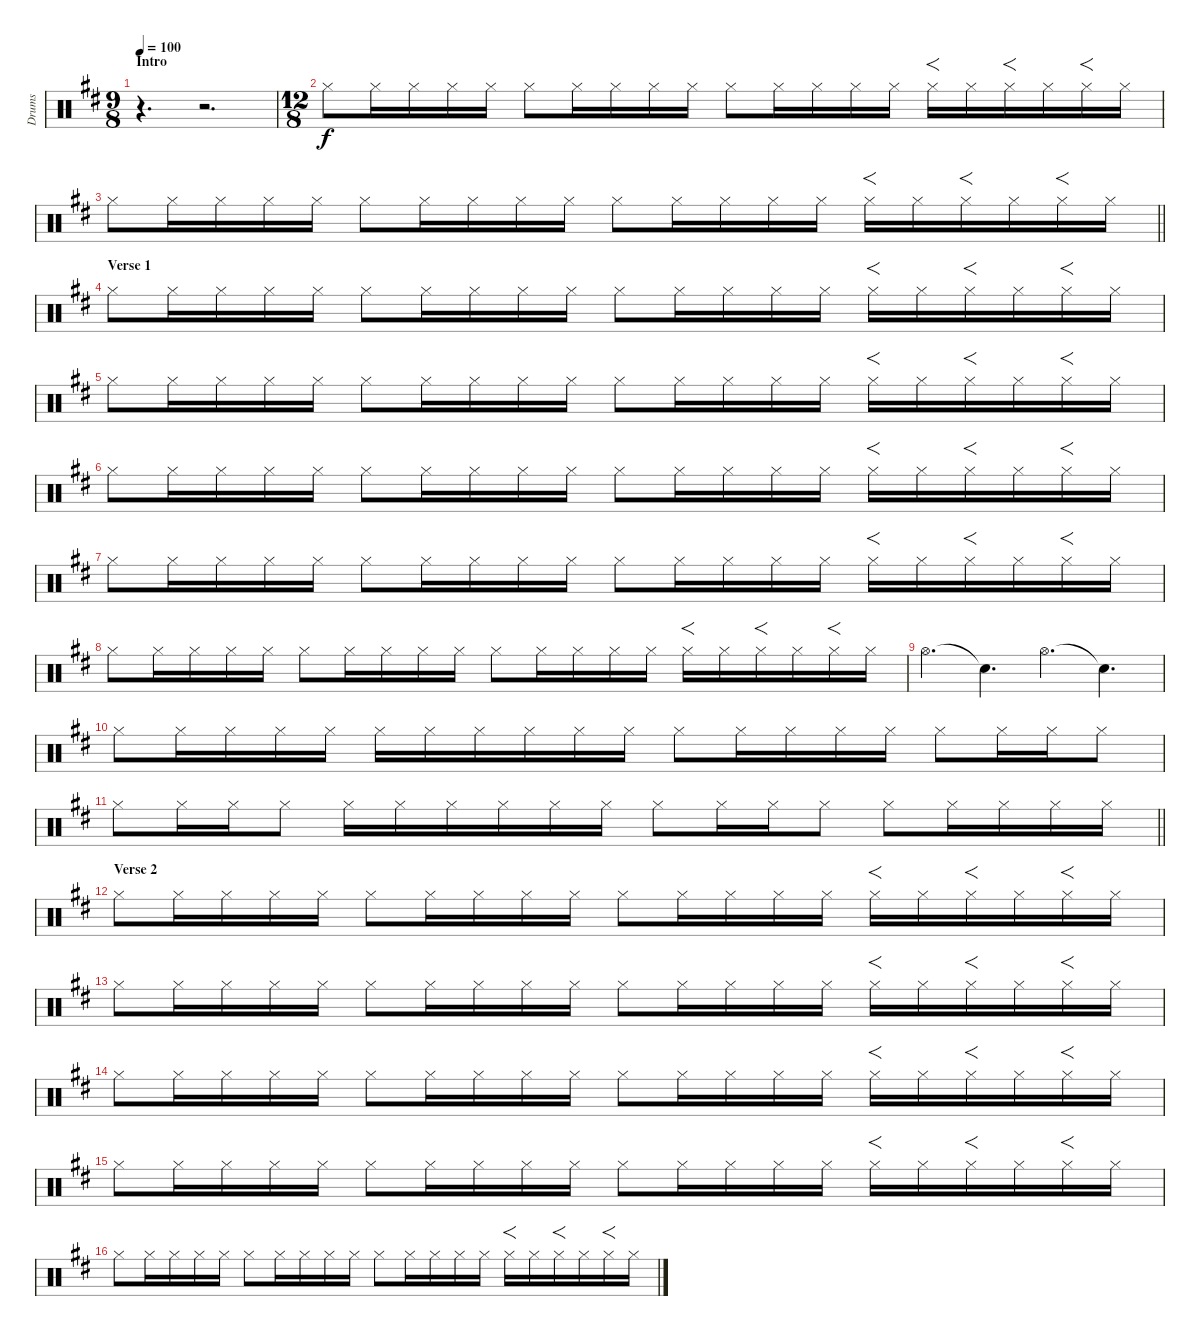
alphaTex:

\track ("Drums" "Drums") {instrument percussion}
\staff {score}
\articulation defaults
\ts (9 8)
\section ("" "Intro")
\tempo 100
\clef neutral
\ks d
r.4{d dy f} r.2{d} |
\ts (12 8)
"Hi-Hat (closed)".8 "Hi-Hat (closed)".16 "Hi-Hat (closed)".16 "Hi-Hat (closed)".16 "Hi-Hat (closed)".16 "Hi-Hat (closed)".8 "Hi-Hat (closed)".16 "Hi-Hat (closed)".16 "Hi-Hat (closed)".16 "Hi-Hat (closed)".16 "Hi-Hat (closed)".8 "Hi-Hat (closed)".16 "Hi-Hat (closed)".16 "Hi-Hat (closed)".16 "Hi-Hat (closed)".16 "Hi-Hat (closed)".16{f} "Hi-Hat (closed)".16 "Hi-Hat (closed)".16{f} "Hi-Hat (closed)".16 "Hi-Hat (closed)".16{f} "Hi-Hat (closed)".16 |
\barLineRight lightlight "Hi-Hat (closed)".8 "Hi-Hat (closed)".16 "Hi-Hat (closed)".16 "Hi-Hat (closed)".16 "Hi-Hat (closed)".16 "Hi-Hat (closed)".8 "Hi-Hat (closed)".16 "Hi-Hat (closed)".16 "Hi-Hat (closed)".16 "Hi-Hat (closed)".16 "Hi-Hat (closed)".8 "Hi-Hat (closed)".16 "Hi-Hat (closed)".16 "Hi-Hat (closed)".16 "Hi-Hat (closed)".16 "Hi-Hat (closed)".16{f} "Hi-Hat (closed)".16 "Hi-Hat (closed)".16{f} "Hi-Hat (closed)".16 "Hi-Hat (closed)".16{f} "Hi-Hat (closed)".16
|
\section ("" "Verse 1")
"Hi-Hat (closed)".8 "Hi-Hat (closed)".16 "Hi-Hat (closed)".16 "Hi-Hat (closed)".16 "Hi-Hat (closed)".16 "Hi-Hat (closed)".8 "Hi-Hat (closed)".16 "Hi-Hat (closed)".16 "Hi-Hat (closed)".16 "Hi-Hat (closed)".16 "Hi-Hat (closed)".8 "Hi-Hat (closed)".16 "Hi-Hat (closed)".16 "Hi-Hat (closed)".16 "Hi-Hat (closed)".16 "Hi-Hat (closed)".16{f} "Hi-Hat (closed)".16 "Hi-Hat (closed)".16{f} "Hi-Hat (closed)".16 "Hi-Hat (closed)".16{f} "Hi-Hat (closed)".16 |
"Hi-Hat (closed)".8 "Hi-Hat (closed)".16 "Hi-Hat (closed)".16 "Hi-Hat (closed)".16 "Hi-Hat (closed)".16 "Hi-Hat (closed)".8 "Hi-Hat (closed)".16 "Hi-Hat (closed)".16 "Hi-Hat (closed)".16 "Hi-Hat (closed)".16 "Hi-Hat (closed)".8 "Hi-Hat (closed)".16 "Hi-Hat (closed)".16 "Hi-Hat (closed)".16 "Hi-Hat (closed)".16 "Hi-Hat (closed)".16{f} "Hi-Hat (closed)".16 "Hi-Hat (closed)".16{f} "Hi-Hat (closed)".16 "Hi-Hat (closed)".16{f} "Hi-Hat (closed)".16 |
"Hi-Hat (closed)".8 "Hi-Hat (closed)".16 "Hi-Hat (closed)".16 "Hi-Hat (closed)".16 "Hi-Hat (closed)".16 "Hi-Hat (closed)".8 "Hi-Hat (closed)".16 "Hi-Hat (closed)".16 "Hi-Hat (closed)".16 "Hi-Hat (closed)".16 "Hi-Hat (closed)".8 "Hi-Hat (closed)".16 "Hi-Hat (closed)".16 "Hi-Hat (closed)".16 "Hi-Hat (closed)".16 "Hi-Hat (closed)".16{f} "Hi-Hat (closed)".16 "Hi-Hat (closed)".16{f} "Hi-Hat (closed)".16 "Hi-Hat (closed)".16{f} "Hi-Hat (closed)".16 |
"Hi-Hat (closed)".8 "Hi-Hat (closed)".16 "Hi-Hat (closed)".16 "Hi-Hat (closed)".16 "Hi-Hat (closed)".16 "Hi-Hat (closed)".8 "Hi-Hat (closed)".16 "Hi-Hat (closed)".16 "Hi-Hat (closed)".16 "Hi-Hat (closed)".16 "Hi-Hat (closed)".8 "Hi-Hat (closed)".16 "Hi-Hat (closed)".16 "Hi-Hat (closed)".16 "Hi-Hat (closed)".16 "Hi-Hat (closed)".16{f} "Hi-Hat (closed)".16 "Hi-Hat (closed)".16{f} "Hi-Hat (closed)".16 "Hi-Hat (closed)".16{f} "Hi-Hat (closed)".16 |
"Hi-Hat (closed)".8 "Hi-Hat (closed)".16 "Hi-Hat (closed)".16 "Hi-Hat (closed)".16 "Hi-Hat (closed)".16 "Hi-Hat (closed)".8 "Hi-Hat (closed)".16 "Hi-Hat (closed)".16 "Hi-Hat (closed)".16 "Hi-Hat (closed)".16 "Hi-Hat (closed)".8 "Hi-Hat (closed)".16 "Hi-Hat (closed)".16 "Hi-Hat (closed)".16 "Hi-Hat (closed)".16 "Hi-Hat (closed)".16{f} "Hi-Hat (closed)".16 "Hi-Hat (closed)".16{f} "Hi-Hat (closed)".16 "Hi-Hat (closed)".16{f} "Hi-Hat (closed)".16 |
"Hi-Hat (open)".4{d} "Snare (hit)"{t}.4{d} "Hi-Hat (open)".4{d} "Snare (hit)"{t}.4{d} |
"Hi-Hat (closed)".8 "Hi-Hat (closed)".16 "Hi-Hat (closed)".16 "Hi-Hat (closed)".16 "Hi-Hat (closed)".16 "Hi-Hat (closed)".16 "Hi-Hat (closed)".16 "Hi-Hat (closed)".16 "Hi-Hat (closed)".16 "Hi-Hat (closed)".16 "Hi-Hat (closed)".16 "Hi-Hat (closed)".8 "Hi-Hat (closed)".16 "Hi-Hat (closed)".16 "Hi-Hat (closed)".16 "Hi-Hat (closed)".16 "Hi-Hat (closed)".8 "Hi-Hat (closed)".16 "Hi-Hat (closed)".16 "Hi-Hat (closed)".8 |
\barLineRight lightlight "Hi-Hat (closed)".8 "Hi-Hat (closed)".16 "Hi-Hat (closed)".16 "Hi-Hat (closed)".8 "Hi-Hat (closed)".16 "Hi-Hat (closed)".16 "Hi-Hat (closed)".16 "Hi-Hat (closed)".16 "Hi-Hat (closed)".16 "Hi-Hat (closed)".16 "Hi-Hat (closed)".8 "Hi-Hat (closed)".16 "Hi-Hat (closed)".16 "Hi-Hat (closed)".8 "Hi-Hat (closed)".8 "Hi-Hat (closed)".16 "Hi-Hat (closed)".16 "Hi-Hat (closed)".16 "Hi-Hat (closed)".16
|
\section ("" "Verse 2")
"Hi-Hat (closed)".8 "Hi-Hat (closed)".16 "Hi-Hat (closed)".16 "Hi-Hat (closed)".16 "Hi-Hat (closed)".16 "Hi-Hat (closed)".8 "Hi-Hat (closed)".16 "Hi-Hat (closed)".16 "Hi-Hat (closed)".16 "Hi-Hat (closed)".16 "Hi-Hat (closed)".8 "Hi-Hat (closed)".16 "Hi-Hat (closed)".16 "Hi-Hat (closed)".16 "Hi-Hat (closed)".16 "Hi-Hat (closed)".16{f} "Hi-Hat (closed)".16 "Hi-Hat (closed)".16{f} "Hi-Hat (closed)".16 "Hi-Hat (closed)".16{f} "Hi-Hat (closed)".16 |
"Hi-Hat (closed)".8 "Hi-Hat (closed)".16 "Hi-Hat (closed)".16 "Hi-Hat (closed)".16 "Hi-Hat (closed)".16 "Hi-Hat (closed)".8 "Hi-Hat (closed)".16 "Hi-Hat (closed)".16 "Hi-Hat (closed)".16 "Hi-Hat (closed)".16 "Hi-Hat (closed)".8 "Hi-Hat (closed)".16 "Hi-Hat (closed)".16 "Hi-Hat (closed)".16 "Hi-Hat (closed)".16 "Hi-Hat (closed)".16{f} "Hi-Hat (closed)".16 "Hi-Hat (closed)".16{f} "Hi-Hat (closed)".16 "Hi-Hat (closed)".16{f} "Hi-Hat (closed)".16 |
"Hi-Hat (closed)".8 "Hi-Hat (closed)".16 "Hi-Hat (closed)".16 "Hi-Hat (closed)".16 "Hi-Hat (closed)".16 "Hi-Hat (closed)".8 "Hi-Hat (closed)".16 "Hi-Hat (closed)".16 "Hi-Hat (closed)".16 "Hi-Hat (closed)".16 "Hi-Hat (closed)".8 "Hi-Hat (closed)".16 "Hi-Hat (closed)".16 "Hi-Hat (closed)".16 "Hi-Hat (closed)".16 "Hi-Hat (closed)".16{f} "Hi-Hat (closed)".16 "Hi-Hat (closed)".16{f} "Hi-Hat (closed)".16 "Hi-Hat (closed)".16{f} "Hi-Hat (closed)".16 |
"Hi-Hat (closed)".8 "Hi-Hat (closed)".16 "Hi-Hat (closed)".16 "Hi-Hat (closed)".16 "Hi-Hat (closed)".16 "Hi-Hat (closed)".8 "Hi-Hat (closed)".16 "Hi-Hat (closed)".16 "Hi-Hat (closed)".16 "Hi-Hat (closed)".16 "Hi-Hat (closed)".8 "Hi-Hat (closed)".16 "Hi-Hat (closed)".16 "Hi-Hat (closed)".16 "Hi-Hat (closed)".16 "Hi-Hat (closed)".16{f} "Hi-Hat (closed)".16 "Hi-Hat (closed)".16{f} "Hi-Hat (closed)".16 "Hi-Hat (closed)".16{f} "Hi-Hat (closed)".16 |
"Hi-Hat (closed)".8 "Hi-Hat (closed)".16 "Hi-Hat (closed)".16 "Hi-Hat (closed)".16 "Hi-Hat (closed)".16 "Hi-Hat (closed)".8 "Hi-Hat (closed)".16 "Hi-Hat (closed)".16 "Hi-Hat (closed)".16 "Hi-Hat (closed)".16 "Hi-Hat (closed)".8 "Hi-Hat (closed)".16 "Hi-Hat (closed)".16 "Hi-Hat (closed)".16 "Hi-Hat (closed)".16 "Hi-Hat (closed)".16{f} "Hi-Hat (closed)".16 "Hi-Hat (closed)".16{f} "Hi-Hat (closed)".16 "Hi-Hat (closed)".16{f} "Hi-Hat (closed)".16
